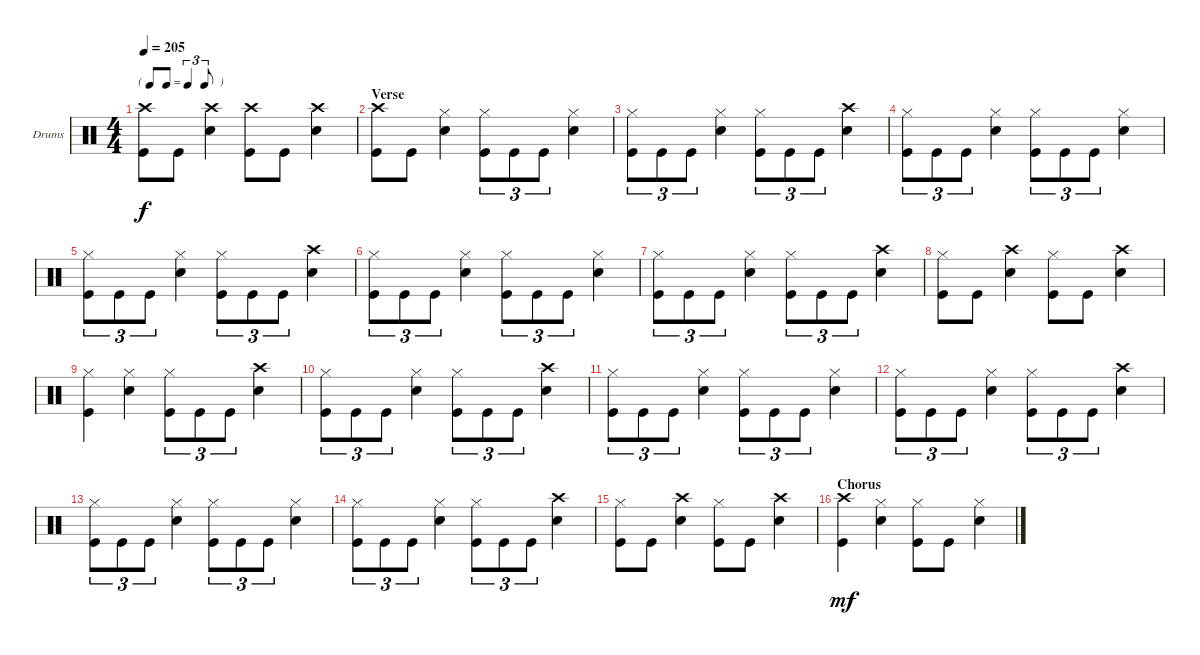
\bracketExtendMode groupsimilarinstruments
\firstSystemTrackNameOrientation horizontal
\otherSystemsTrackNameOrientation horizontal
\track ("Drums" "Drums") {instrument percussion}
\staff {score}
\articulation defaults
\ts (4 4)
\tf triplet8th
\tempo 205
\clef neutral
\ks c
("Kick (hit)" "Crash high (hit)").8{dy f} "Kick (hit)".8 ("Snare (hit) 2" "Crash high (hit)").4 ("Kick (hit)" "Crash high (hit)").8 "Kick (hit)".8 ("Snare (hit) 2" "Crash high (hit)").4 |
\section ("" "Verse")
("Crash high (hit)" "Kick (hit)").8 "Kick (hit)".8 ("Snare (hit) 2" "Hi-Hat (closed)").4 ("Hi-Hat (closed)" "Kick (hit)").8{tu (3 2)} "Kick (hit)".8{tu (3 2)} "Kick (hit)".8{tu (3 2)} ("Hi-Hat (closed)" "Snare (hit) 2").4 |
("Hi-Hat (closed)" "Kick (hit)").8{tu (3 2)} "Kick (hit)".8{tu (3 2)} "Kick (hit)".8{tu (3 2)} ("Snare (hit) 2" "Hi-Hat (closed)").4 ("Hi-Hat (closed)" "Kick (hit)").8{tu (3 2)} "Kick (hit)".8{tu (3 2)} "Kick (hit)".8{tu (3 2)} ("Crash high (hit)" "Snare (hit) 2").4 |
("Hi-Hat (closed)" "Kick (hit)").8{tu (3 2)} "Kick (hit)".8{tu (3 2)} "Kick (hit)".8{tu (3 2)} ("Snare (hit) 2" "Hi-Hat (closed)").4 ("Hi-Hat (closed)" "Kick (hit)").8{tu (3 2)} "Kick (hit)".8{tu (3 2)} "Kick (hit)".8{tu (3 2)} ("Hi-Hat (closed)" "Snare (hit) 2").4 |
("Hi-Hat (closed)" "Kick (hit)").8{tu (3 2)} "Kick (hit)".8{tu (3 2)} "Kick (hit)".8{tu (3 2)} ("Snare (hit) 2" "Hi-Hat (closed)").4 ("Hi-Hat (closed)" "Kick (hit)").8{tu (3 2)} "Kick (hit)".8{tu (3 2)} "Kick (hit)".8{tu (3 2)} ("Crash high (hit)" "Snare (hit) 2").4 |
("Hi-Hat (closed)" "Kick (hit)").8{tu (3 2)} "Kick (hit)".8{tu (3 2)} "Kick (hit)".8{tu (3 2)} ("Snare (hit) 2" "Hi-Hat (closed)").4 ("Hi-Hat (closed)" "Kick (hit)").8{tu (3 2)} "Kick (hit)".8{tu (3 2)} "Kick (hit)".8{tu (3 2)} ("Hi-Hat (closed)" "Snare (hit) 2").4 |
("Hi-Hat (closed)" "Kick (hit)").8{tu (3 2)} "Kick (hit)".8{tu (3 2)} "Kick (hit)".8{tu (3 2)} ("Snare (hit) 2" "Hi-Hat (closed)").4 ("Hi-Hat (closed)" "Kick (hit)").8{tu (3 2)} "Kick (hit)".8{tu (3 2)} "Kick (hit)".8{tu (3 2)} ("Crash high (hit)" "Snare (hit) 2").4 |
("Kick (hit)" "Hi-Hat (closed)").8 "Kick (hit)".8 ("Crash high (hit)" "Snare (hit) 2").4 ("Kick (hit)" "Hi-Hat (closed)").8 "Kick (hit)".8 ("Crash high (hit)" "Snare (hit) 2").4 |
("Hi-Hat (closed)" "Kick (hit)").4 ("Snare (hit) 2" "Hi-Hat (closed)").4 ("Hi-Hat (closed)" "Kick (hit)").8{tu (3 2)} "Kick (hit)".8{tu (3 2)} "Kick (hit)".8{tu (3 2)} ("Crash high (hit)" "Snare (hit) 2").4 |
("Hi-Hat (closed)" "Kick (hit)").8{tu (3 2)} "Kick (hit)".8{tu (3 2)} "Kick (hit)".8{tu (3 2)} ("Snare (hit) 2" "Hi-Hat (closed)").4 ("Hi-Hat (closed)" "Kick (hit)").8{tu (3 2)} "Kick (hit)".8{tu (3 2)} "Kick (hit)".8{tu (3 2)} ("Crash high (hit)" "Snare (hit) 2").4 |
("Hi-Hat (closed)" "Kick (hit)").8{tu (3 2)} "Kick (hit)".8{tu (3 2)} "Kick (hit)".8{tu (3 2)} ("Snare (hit) 2" "Hi-Hat (closed)").4 ("Hi-Hat (closed)" "Kick (hit)").8{tu (3 2)} "Kick (hit)".8{tu (3 2)} "Kick (hit)".8{tu (3 2)} ("Hi-Hat (closed)" "Snare (hit) 2").4 |
("Hi-Hat (closed)" "Kick (hit)").8{tu (3 2)} "Kick (hit)".8{tu (3 2)} "Kick (hit)".8{tu (3 2)} ("Snare (hit) 2" "Hi-Hat (closed)").4 ("Hi-Hat (closed)" "Kick (hit)").8{tu (3 2)} "Kick (hit)".8{tu (3 2)} "Kick (hit)".8{tu (3 2)} ("Crash high (hit)" "Snare (hit) 2").4 |
("Hi-Hat (closed)" "Kick (hit)").8{tu (3 2)} "Kick (hit)".8{tu (3 2)} "Kick (hit)".8{tu (3 2)} ("Snare (hit) 2" "Hi-Hat (closed)").4 ("Hi-Hat (closed)" "Kick (hit)").8{tu (3 2)} "Kick (hit)".8{tu (3 2)} "Kick (hit)".8{tu (3 2)} ("Hi-Hat (closed)" "Snare (hit) 2").4 |
("Hi-Hat (closed)" "Kick (hit)").8{tu (3 2)} "Kick (hit)".8{tu (3 2)} "Kick (hit)".8{tu (3 2)} ("Snare (hit) 2" "Hi-Hat (closed)").4 ("Hi-Hat (closed)" "Kick (hit)").8{tu (3 2)} "Kick (hit)".8{tu (3 2)} "Kick (hit)".8{tu (3 2)} ("Crash high (hit)" "Snare (hit) 2").4 |
("Hi-Hat (closed)" "Kick (hit)").8 "Kick (hit)".8 ("Crash high (hit)" "Snare (hit) 2").4 ("Hi-Hat (closed)" "Kick (hit)").8 "Kick (hit)".8 ("Crash high (hit)" "Snare (hit) 2").4 |
\section ("" "Chorus")
("Kick (hit)" "Crash high (hit)").4{dy mf} ("Hi-Hat (closed)" "Snare (hit) 2").4 ("Hi-Hat (closed)" "Kick (hit)").8 "Kick (hit)".8 ("Snare (hit) 2" "Hi-Hat (closed)").4
